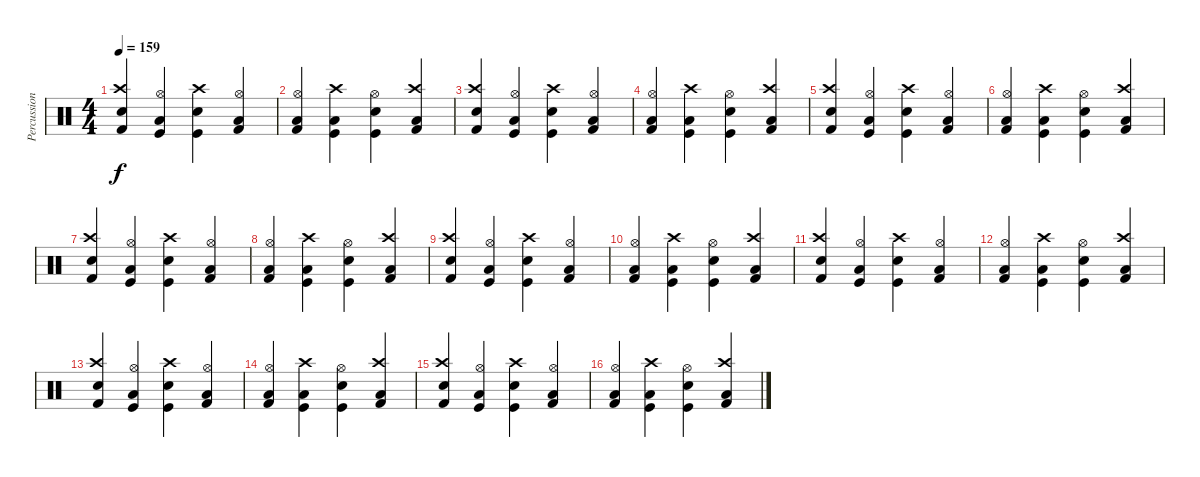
\track ("Percussions" "Percussion") {instrument percussion}
\staff {score}
\articulation defaults
\ts (4 4)
\tempo 159
\clef neutral
\ks c
("Kick (hit) 2" "Crash high (hit)" "Electric Snare (hit)").4{dy f} ("Kick (hit)" "Hi-Hat (open)" "Low Tom (hit)").4 ("Kick (hit)" "Crash high (hit)" "Electric Snare (hit)").4 ("Kick (hit) 2" "Hi-Hat (open)" "Low Tom (hit)").4 |
("Kick (hit) 2" "Hi-Hat (open)" "Low Tom (hit)").4 ("Kick (hit)" "Crash high (hit)" "Low Tom (hit)").4 ("Kick (hit)" "Hi-Hat (open)" "Electric Snare (hit)").4 ("Kick (hit) 2" "Crash high (hit)" "Low Tom (hit)").4 |
("Kick (hit) 2" "Crash high (hit)" "Electric Snare (hit)").4 ("Kick (hit)" "Hi-Hat (open)" "Low Tom (hit)").4 ("Kick (hit)" "Crash high (hit)" "Electric Snare (hit)").4 ("Kick (hit) 2" "Hi-Hat (open)" "Low Tom (hit)").4 |
("Kick (hit) 2" "Hi-Hat (open)" "Low Tom (hit)").4 ("Kick (hit)" "Crash high (hit)" "Low Tom (hit)").4 ("Kick (hit)" "Hi-Hat (open)" "Electric Snare (hit)").4 ("Kick (hit) 2" "Crash high (hit)" "Low Tom (hit)").4 |
("Kick (hit) 2" "Crash high (hit)" "Electric Snare (hit)").4 ("Kick (hit)" "Hi-Hat (open)" "Low Tom (hit)").4 ("Kick (hit)" "Crash high (hit)" "Electric Snare (hit)").4 ("Kick (hit) 2" "Hi-Hat (open)" "Low Tom (hit)").4 |
("Kick (hit) 2" "Hi-Hat (open)" "Low Tom (hit)").4 ("Kick (hit)" "Crash high (hit)" "Low Tom (hit)").4 ("Kick (hit)" "Hi-Hat (open)" "Electric Snare (hit)").4 ("Kick (hit) 2" "Crash high (hit)" "Low Tom (hit)").4 |
("Kick (hit) 2" "Crash high (hit)" "Electric Snare (hit)").4 ("Kick (hit)" "Hi-Hat (open)" "Low Tom (hit)").4 ("Kick (hit)" "Crash high (hit)" "Electric Snare (hit)").4 ("Kick (hit) 2" "Hi-Hat (open)" "Low Tom (hit)").4 |
("Kick (hit) 2" "Hi-Hat (open)" "Low Tom (hit)").4 ("Kick (hit)" "Crash high (hit)" "Low Tom (hit)").4 ("Kick (hit)" "Hi-Hat (open)" "Electric Snare (hit)").4 ("Kick (hit) 2" "Crash high (hit)" "Low Tom (hit)").4 |
("Kick (hit) 2" "Crash high (hit)" "Electric Snare (hit)").4 ("Kick (hit)" "Hi-Hat (open)" "Low Tom (hit)").4 ("Kick (hit)" "Crash high (hit)" "Electric Snare (hit)").4 ("Kick (hit) 2" "Hi-Hat (open)" "Low Tom (hit)").4 |
("Kick (hit) 2" "Hi-Hat (open)" "Low Tom (hit)").4 ("Kick (hit)" "Crash high (hit)" "Low Tom (hit)").4 ("Kick (hit)" "Hi-Hat (open)" "Electric Snare (hit)").4 ("Kick (hit) 2" "Crash high (hit)" "Low Tom (hit)").4 |
("Kick (hit) 2" "Crash high (hit)" "Electric Snare (hit)").4 ("Kick (hit)" "Hi-Hat (open)" "Low Tom (hit)").4 ("Kick (hit)" "Crash high (hit)" "Electric Snare (hit)").4 ("Kick (hit) 2" "Hi-Hat (open)" "Low Tom (hit)").4 |
("Kick (hit) 2" "Hi-Hat (open)" "Low Tom (hit)").4 ("Kick (hit)" "Crash high (hit)" "Low Tom (hit)").4 ("Kick (hit)" "Hi-Hat (open)" "Electric Snare (hit)").4 ("Kick (hit) 2" "Crash high (hit)" "Low Tom (hit)").4 |
("Kick (hit) 2" "Crash high (hit)" "Electric Snare (hit)").4 ("Kick (hit)" "Hi-Hat (open)" "Low Tom (hit)").4 ("Kick (hit)" "Crash high (hit)" "Electric Snare (hit)").4 ("Kick (hit) 2" "Hi-Hat (open)" "Low Tom (hit)").4 |
("Kick (hit) 2" "Hi-Hat (open)" "Low Tom (hit)").4 ("Kick (hit)" "Crash high (hit)" "Low Tom (hit)").4 ("Kick (hit)" "Hi-Hat (open)" "Electric Snare (hit)").4 ("Kick (hit) 2" "Crash high (hit)" "Low Tom (hit)").4 |
("Kick (hit) 2" "Crash high (hit)" "Electric Snare (hit)").4 ("Kick (hit)" "Hi-Hat (open)" "Low Tom (hit)").4 ("Kick (hit)" "Crash high (hit)" "Electric Snare (hit)").4 ("Kick (hit) 2" "Hi-Hat (open)" "Low Tom (hit)").4 |
("Kick (hit) 2" "Hi-Hat (open)" "Low Tom (hit)").4 ("Kick (hit)" "Crash high (hit)" "Low Tom (hit)").4 ("Kick (hit)" "Hi-Hat (open)" "Electric Snare (hit)").4 ("Kick (hit) 2" "Crash high (hit)" "Low Tom (hit)").4
